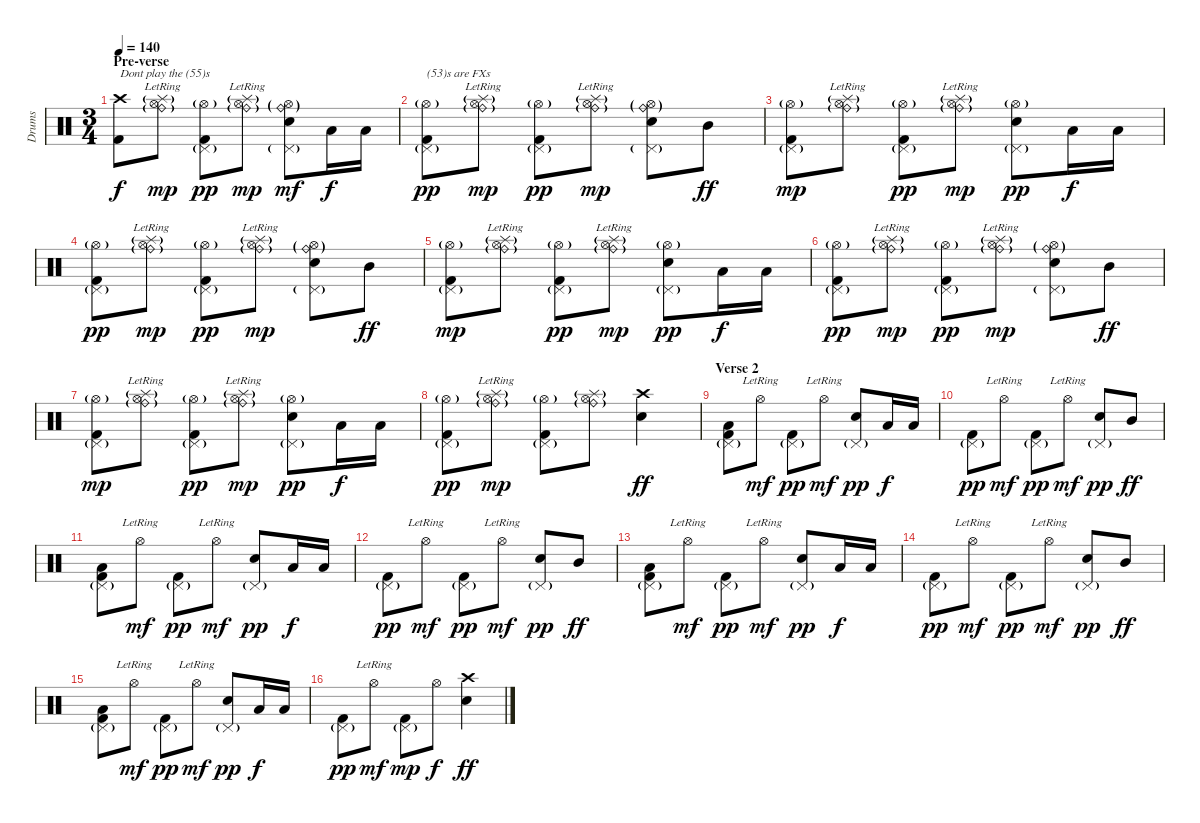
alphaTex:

\track ("Drums" "Drums") {instrument percussion}
\staff {score}
\articulation defaults
\ts (3 4)
\section ("" "Pre-verse")
\tempo 140
\clef neutral
\ks c
("Crash high (hit)" "Kick (hit) 2").8{txt "Dont play the (55)s" dy f} ("Splash (hit)"{g lr} "Hi-Hat (open)" "Ride (bell)"{g}).8{dy mp} ("Hi-Hat (open)"{g} "Pedal Hi-Hat (hit)"{g} "Kick (hit) 2").8{dy pp} ("Splash (hit)"{g lr} "Hi-Hat (open)" "Ride (bell)"{g}).8{dy mp} ("Hi-Hat (open)"{g} "Pedal Hi-Hat (hit)"{g} "Snare (hit) 2" "Ride (bell)"{g}).8{dy mf} "Low Tom (hit)".16{dy f} "Low Tom (hit)".16 |
("Hi-Hat (open)"{g} "Pedal Hi-Hat (hit)"{g} "Kick (hit) 2").8{txt "(53)s are FXs" dy pp} ("Splash (hit)"{g lr} "Hi-Hat (open)"{lr} "Ride (bell)"{g}).8{dy mp} ("Hi-Hat (open)"{g} "Pedal Hi-Hat (hit)"{g} "Kick (hit) 2").8{dy pp} ("Splash (hit)"{g lr} "Hi-Hat (open)"{lr} "Ride (bell)"{g}).8{dy mp} ("Hi-Hat (open)"{g} "Pedal Hi-Hat (hit)"{g} "Snare (hit) 2" "Ride (bell)"{g}).8 "Mid Tom (hit)".8{dy ff} |
("Hi-Hat (open)"{g} "Pedal Hi-Hat (hit)"{g} "Kick (hit) 2").8{dy mp} ("Splash (hit)"{g lr} "Hi-Hat (open)" "Ride (bell)"{g}).8 ("Hi-Hat (open)"{g} "Pedal Hi-Hat (hit)"{g} "Kick (hit) 2").8{dy pp} ("Splash (hit)"{g lr} "Hi-Hat (open)" "Ride (bell)"{g}).8{dy mp} ("Hi-Hat (open)"{g} "Pedal Hi-Hat (hit)"{g} "Snare (hit) 2").8{dy pp} "Low Tom (hit)".16{dy f} "Low Tom (hit)".16 |
("Hi-Hat (open)"{g} "Pedal Hi-Hat (hit)"{g} "Kick (hit) 2").8{dy pp} ("Splash (hit)"{g lr} "Hi-Hat (open)"{lr} "Ride (bell)"{g}).8{dy mp} ("Hi-Hat (open)"{g} "Pedal Hi-Hat (hit)"{g} "Kick (hit) 2").8{dy pp} ("Splash (hit)"{g lr} "Hi-Hat (open)"{lr} "Ride (bell)"{g}).8{dy mp} ("Hi-Hat (open)"{g} "Pedal Hi-Hat (hit)"{g} "Snare (hit) 2" "Ride (bell)"{g}).8 "Mid Tom (hit)".8{dy ff} |
("Hi-Hat (open)"{g} "Pedal Hi-Hat (hit)"{g} "Kick (hit) 2").8{dy mp} ("Splash (hit)"{g lr} "Hi-Hat (open)" "Ride (bell)"{g}).8 ("Hi-Hat (open)"{g} "Pedal Hi-Hat (hit)"{g} "Kick (hit) 2").8{dy pp} ("Splash (hit)"{g lr} "Hi-Hat (open)" "Ride (bell)"{g}).8{dy mp} ("Hi-Hat (open)"{g} "Pedal Hi-Hat (hit)"{g} "Snare (hit) 2").8{dy pp} "Low Tom (hit)".16{dy f} "Low Tom (hit)".16 |
("Hi-Hat (open)"{g} "Pedal Hi-Hat (hit)"{g} "Kick (hit) 2").8{dy pp} ("Splash (hit)"{g lr} "Hi-Hat (open)"{lr} "Ride (bell)"{g}).8{dy mp} ("Hi-Hat (open)"{g} "Pedal Hi-Hat (hit)"{g} "Kick (hit) 2").8{dy pp} ("Splash (hit)"{g lr} "Hi-Hat (open)"{lr} "Ride (bell)"{g}).8{dy mp} ("Hi-Hat (open)"{g} "Pedal Hi-Hat (hit)"{g} "Snare (hit) 2" "Ride (bell)"{g}).8 "Mid Tom (hit)".8{dy ff} |
("Hi-Hat (open)"{g} "Pedal Hi-Hat (hit)"{g} "Kick (hit) 2").8{dy mp} ("Splash (hit)"{g lr} "Hi-Hat (open)" "Ride (bell)"{g}).8 ("Hi-Hat (open)"{g} "Pedal Hi-Hat (hit)"{g} "Kick (hit) 2").8{dy pp} ("Splash (hit)"{g lr} "Hi-Hat (open)" "Ride (bell)"{g}).8{dy mp} ("Hi-Hat (open)"{g} "Pedal Hi-Hat (hit)"{g} "Snare (hit) 2").8{dy pp} "Low Tom (hit)".16{dy f} "Low Tom (hit)".16 |
("Hi-Hat (open)"{g} "Pedal Hi-Hat (hit)"{g} "Kick (hit) 2").8{dy pp} ("Splash (hit)"{g} "Hi-Hat (open)"{lr} "Ride (bell)"{g}).8{dy mp} ("Hi-Hat (open)"{g} "Pedal Hi-Hat (hit)"{g} "Kick (hit) 2").8 ("Splash (hit)"{g} "Hi-Hat (open)" "Ride (bell)"{g}).8 ("Crash high (hit)" "Snare (hit) 2").4{dy ff} |
\section ("" "Verse 2")
("Pedal Hi-Hat (hit)"{g} "Low Tom (hit)" "Kick (hit) 2").8 "Hi-Hat (open)"{lr}.8{dy mf} ("Pedal Hi-Hat (hit)"{g} "Kick (hit) 2").8{dy pp} "Hi-Hat (open)"{lr}.8{dy mf} ("Pedal Hi-Hat (hit)"{g} "Snare (hit) 2").8{dy pp} "Low Tom (hit)".16{dy f} "Low Tom (hit)".16 |
("Pedal Hi-Hat (hit)"{g} "Kick (hit) 2").8{dy pp} "Hi-Hat (open)"{lr}.8{dy mf} ("Pedal Hi-Hat (hit)"{g} "Kick (hit) 2").8{dy pp} "Hi-Hat (open)"{lr}.8{dy mf} ("Pedal Hi-Hat (hit)"{g} "Snare (hit) 2").8{dy pp} "Mid Tom (hit)".8{dy ff} |
("Pedal Hi-Hat (hit)"{g} "Low Tom (hit)" "Kick (hit) 2").8 "Hi-Hat (open)"{lr}.8{dy mf} ("Pedal Hi-Hat (hit)"{g} "Kick (hit) 2").8{dy pp} "Hi-Hat (open)"{lr}.8{dy mf} ("Pedal Hi-Hat (hit)"{g} "Snare (hit) 2").8{dy pp} "Low Tom (hit)".16{dy f} "Low Tom (hit)".16 |
("Pedal Hi-Hat (hit)"{g} "Kick (hit) 2").8{dy pp} "Hi-Hat (open)"{lr}.8{dy mf} ("Pedal Hi-Hat (hit)"{g} "Kick (hit) 2").8{dy pp} "Hi-Hat (open)"{lr}.8{dy mf} ("Pedal Hi-Hat (hit)"{g} "Snare (hit) 2").8{dy pp} "Mid Tom (hit)".8{dy ff} |
("Pedal Hi-Hat (hit)"{g} "Low Tom (hit)" "Kick (hit) 2").8 "Hi-Hat (open)"{lr}.8{dy mf} ("Pedal Hi-Hat (hit)"{g} "Kick (hit) 2").8{dy pp} "Hi-Hat (open)"{lr}.8{dy mf} ("Pedal Hi-Hat (hit)"{g} "Snare (hit) 2").8{dy pp} "Low Tom (hit)".16{dy f} "Low Tom (hit)".16 |
("Pedal Hi-Hat (hit)"{g} "Kick (hit) 2").8{dy pp} "Hi-Hat (open)"{lr}.8{dy mf} ("Pedal Hi-Hat (hit)"{g} "Kick (hit) 2").8{dy pp} "Hi-Hat (open)"{lr}.8{dy mf} ("Pedal Hi-Hat (hit)"{g} "Snare (hit) 2").8{dy pp} "Mid Tom (hit)".8{dy ff} |
("Pedal Hi-Hat (hit)"{g} "Low Tom (hit)" "Kick (hit) 2").8 "Hi-Hat (open)"{lr}.8{dy mf} ("Pedal Hi-Hat (hit)"{g} "Kick (hit) 2").8{dy pp} "Hi-Hat (open)"{lr}.8{dy mf} ("Pedal Hi-Hat (hit)"{g} "Snare (hit) 2").8{dy pp} "Low Tom (hit)".16{dy f} "Low Tom (hit)".16 |
("Pedal Hi-Hat (hit)"{g} "Kick (hit) 2").8{dy pp} "Hi-Hat (open)"{lr}.8{dy mf} ("Pedal Hi-Hat (hit)"{g} "Kick (hit) 2").8{dy mp} "Hi-Hat (open)".8{dy f} ("Crash high (hit)" "Snare (hit) 2").4{dy ff}
